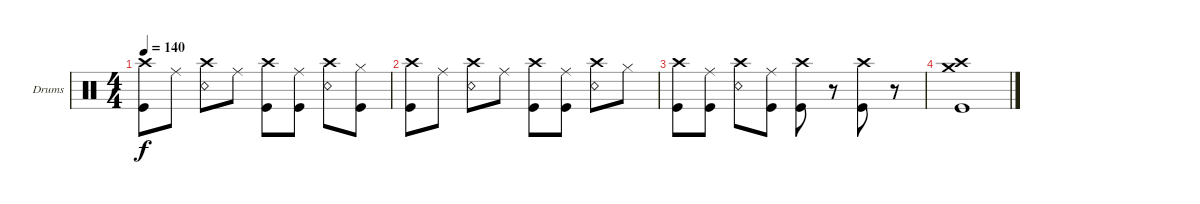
\bracketExtendMode groupsimilarinstruments
\firstSystemTrackNameOrientation horizontal
\otherSystemsTrackNameOrientation horizontal
\track ("Drumkit" "Drums") {instrument percussion}
\staff {score}
\articulation defaults
\ts (4 4)
\tempo 140
\clef neutral
\ks c
("Kick (hit)" "Crash high (hit)").8{dy f} "Ride (middle)".8 ("Crash high (hit)" "Snare (rim shot)").8 "Ride (middle)".8 ("Crash high (hit)" "Kick (hit)").8 ("Kick (hit)" "Ride (middle)").8 ("Crash high (hit)" "Snare (rim shot)").8 ("Hi-Hat (closed)" "Kick (hit)").8 |
("Kick (hit)" "Crash high (hit)").8 "Ride (middle)".8 ("Crash high (hit)" "Snare (rim shot)").8 "Ride (middle)".8 ("Crash high (hit)" "Kick (hit)").8 ("Kick (hit)" "Ride (middle)").8 ("Crash high (hit)" "Snare (rim shot)").8 "Hi-Hat (closed)".8 |
("Kick (hit)" "Crash high (hit)").8 ("Ride (middle)" "Kick (hit)").8 ("Crash high (hit)" "Snare (rim shot)").8 ("Ride (middle)" "Kick (hit)").8 ("Crash high (hit)" "Kick (hit)").8 r.8 ("Crash high (hit)" "Kick (hit)").8 r.8 |
("Kick (hit)" "Crash high (hit)" "Crash medium (hit)").1
